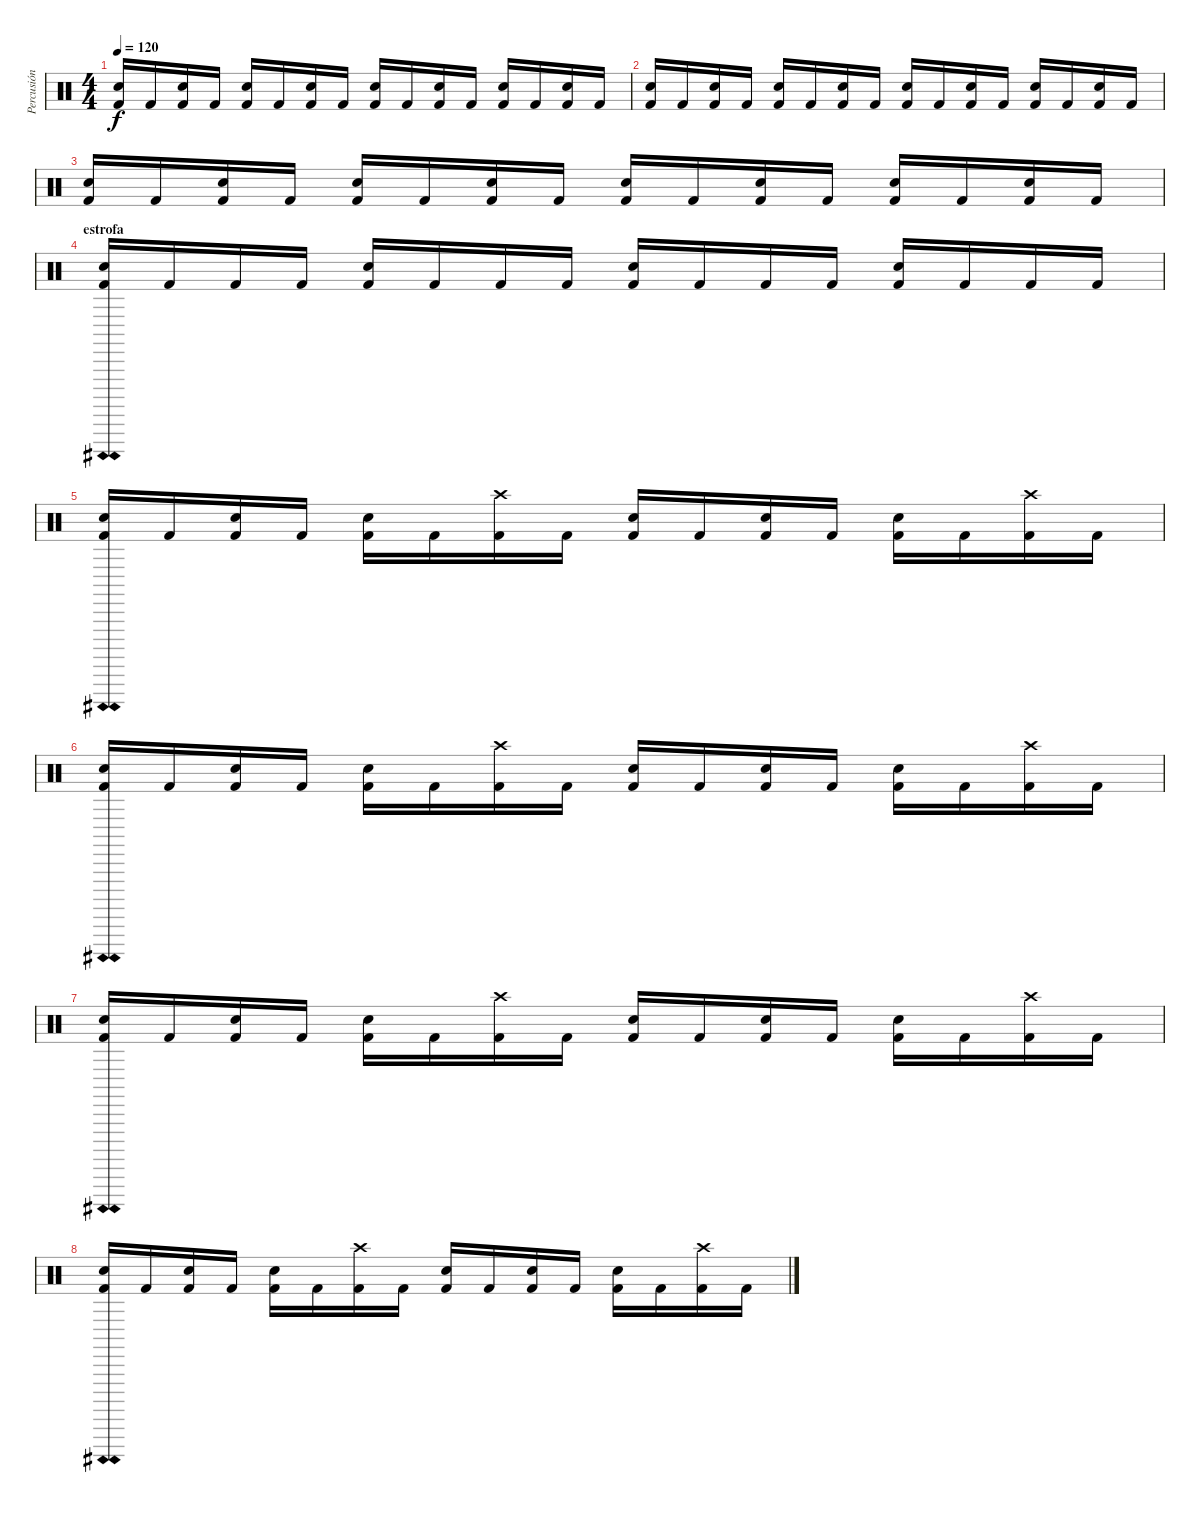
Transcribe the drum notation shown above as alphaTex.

\track ("Percusión" "Percusión") {instrument percussion}
\staff {score}
\articulation defaults
\ts (4 4)
\tempo 120
\clef neutral
\ks c
("Kick (hit) 2" "Electric Snare (hit)").16{dy f} "Kick (hit) 2".16 ("Kick (hit) 2" "Electric Snare (hit)").16 "Kick (hit) 2".16 ("Kick (hit) 2" "Electric Snare (hit)").16 "Kick (hit) 2".16 ("Kick (hit) 2" "Electric Snare (hit)").16 "Kick (hit) 2".16 ("Kick (hit) 2" "Electric Snare (hit)").16 "Kick (hit) 2".16 ("Kick (hit) 2" "Electric Snare (hit)").16 "Kick (hit) 2".16 ("Kick (hit) 2" "Electric Snare (hit)").16 "Kick (hit) 2".16 ("Kick (hit) 2" "Electric Snare (hit)").16 "Kick (hit) 2".16 |
("Kick (hit) 2" "Electric Snare (hit)").16 "Kick (hit) 2".16 ("Kick (hit) 2" "Electric Snare (hit)").16 "Kick (hit) 2".16 ("Kick (hit) 2" "Electric Snare (hit)").16 "Kick (hit) 2".16 ("Kick (hit) 2" "Electric Snare (hit)").16 "Kick (hit) 2".16 ("Kick (hit) 2" "Electric Snare (hit)").16 "Kick (hit) 2".16 ("Kick (hit) 2" "Electric Snare (hit)").16 "Kick (hit) 2".16 ("Kick (hit) 2" "Electric Snare (hit)").16 "Kick (hit) 2".16 ("Kick (hit) 2" "Electric Snare (hit)").16 "Kick (hit) 2".16 |
("Kick (hit) 2" "Electric Snare (hit)").16 "Kick (hit) 2".16 ("Kick (hit) 2" "Electric Snare (hit)").16 "Kick (hit) 2".16 ("Kick (hit) 2" "Electric Snare (hit)").16 "Kick (hit) 2".16 ("Kick (hit) 2" "Electric Snare (hit)").16 "Kick (hit) 2".16 ("Kick (hit) 2" "Electric Snare (hit)").16 "Kick (hit) 2".16 ("Kick (hit) 2" "Electric Snare (hit)").16 "Kick (hit) 2".16 ("Kick (hit) 2" "Electric Snare (hit)").16 "Kick (hit) 2".16 ("Kick (hit) 2" "Electric Snare (hit)").16 "Kick (hit) 2".16 |
\section ("" "estrofa")
("Kick (hit) 2"{ah 12} "Electric Snare (hit)"{ah 12}).16 "Kick (hit) 2".16 "Kick (hit) 2".16 "Kick (hit) 2".16 ("Kick (hit) 2" "Electric Snare (hit)").16 "Kick (hit) 2".16 "Kick (hit) 2".16 "Kick (hit) 2".16 ("Kick (hit) 2" "Electric Snare (hit)").16 "Kick (hit) 2".16 "Kick (hit) 2".16 "Kick (hit) 2".16 ("Kick (hit) 2" "Electric Snare (hit)").16 "Kick (hit) 2".16 "Kick (hit) 2".16 "Kick (hit) 2".16 |
("Kick (hit) 2"{ah 12} "Electric Snare (hit)"{ah 12}).16 "Kick (hit) 2".16 ("Kick (hit) 2" "Electric Snare (hit)").16 "Kick (hit) 2".16 ("Kick (hit) 2" "Electric Snare (hit)").16 "Kick (hit) 2".16 ("Crash high (hit)" "Kick (hit) 2").16 "Kick (hit) 2".16 ("Kick (hit) 2" "Electric Snare (hit)").16 "Kick (hit) 2".16 ("Kick (hit) 2" "Electric Snare (hit)").16 "Kick (hit) 2".16 ("Kick (hit) 2" "Electric Snare (hit)").16 "Kick (hit) 2".16 ("Crash high (hit)" "Kick (hit) 2").16 "Kick (hit) 2".16 |
("Kick (hit) 2"{ah 12} "Electric Snare (hit)"{ah 12}).16 "Kick (hit) 2".16 ("Kick (hit) 2" "Electric Snare (hit)").16 "Kick (hit) 2".16 ("Kick (hit) 2" "Electric Snare (hit)").16 "Kick (hit) 2".16 ("Crash high (hit)" "Kick (hit) 2").16 "Kick (hit) 2".16 ("Kick (hit) 2" "Electric Snare (hit)").16 "Kick (hit) 2".16 ("Kick (hit) 2" "Electric Snare (hit)").16 "Kick (hit) 2".16 ("Kick (hit) 2" "Electric Snare (hit)").16 "Kick (hit) 2".16 ("Crash high (hit)" "Kick (hit) 2").16 "Kick (hit) 2".16 |
("Kick (hit) 2"{ah 12} "Electric Snare (hit)"{ah 12}).16 "Kick (hit) 2".16 ("Kick (hit) 2" "Electric Snare (hit)").16 "Kick (hit) 2".16 ("Kick (hit) 2" "Electric Snare (hit)").16 "Kick (hit) 2".16 ("Crash high (hit)" "Kick (hit) 2").16 "Kick (hit) 2".16 ("Kick (hit) 2" "Electric Snare (hit)").16 "Kick (hit) 2".16 ("Kick (hit) 2" "Electric Snare (hit)").16 "Kick (hit) 2".16 ("Kick (hit) 2" "Electric Snare (hit)").16 "Kick (hit) 2".16 ("Crash high (hit)" "Kick (hit) 2").16 "Kick (hit) 2".16 |
("Kick (hit) 2"{ah 12} "Electric Snare (hit)"{ah 12}).16 "Kick (hit) 2".16 ("Kick (hit) 2" "Electric Snare (hit)").16 "Kick (hit) 2".16 ("Kick (hit) 2" "Electric Snare (hit)").16 "Kick (hit) 2".16 ("Crash high (hit)" "Kick (hit) 2").16 "Kick (hit) 2".16 ("Kick (hit) 2" "Electric Snare (hit)").16 "Kick (hit) 2".16 ("Kick (hit) 2" "Electric Snare (hit)").16 "Kick (hit) 2".16 ("Kick (hit) 2" "Electric Snare (hit)").16 "Kick (hit) 2".16 ("Crash high (hit)" "Kick (hit) 2").16 "Kick (hit) 2".16
